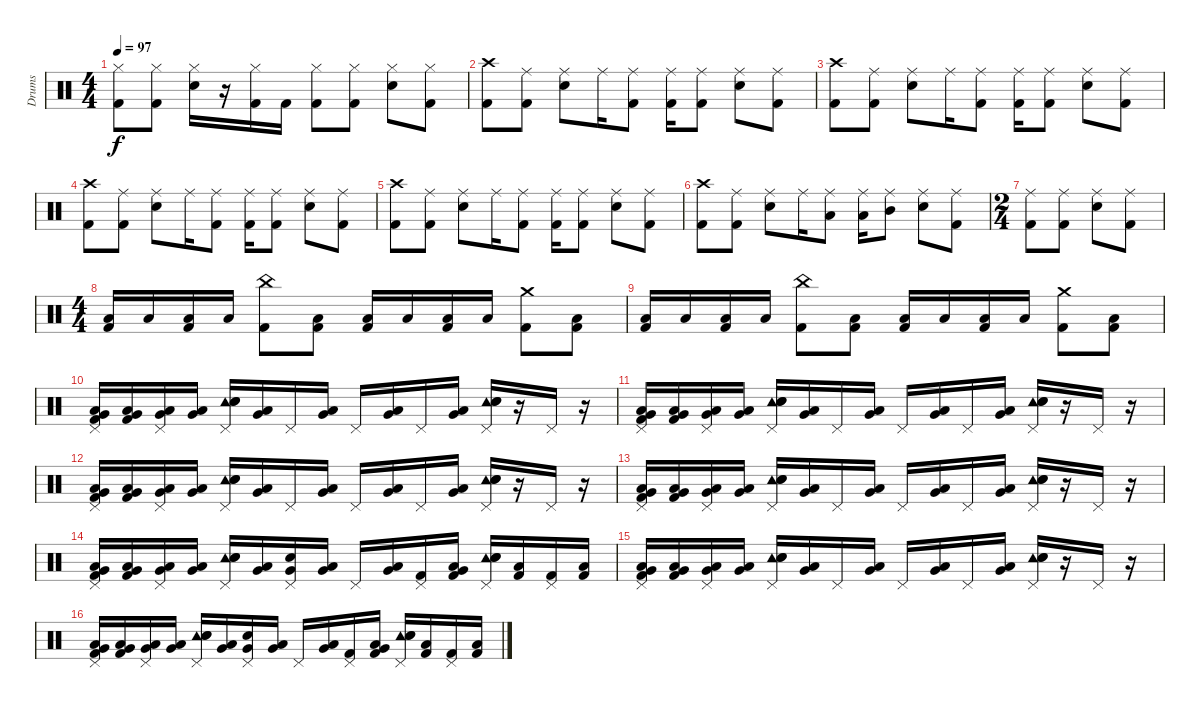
\track ("Drums" "Drums") {instrument percussion}
\staff {score}
\articulation defaults
\ts (4 4)
\tempo 97
\clef neutral
\ks c
("Hi-Hat (closed)" "Kick (hit) 2").8{dy f} ("Hi-Hat (closed)" "Kick (hit) 2").8 ("Hi-Hat (closed)" "Snare (hit) 2").16 r.16 ("Hi-Hat (closed)" "Kick (hit) 2").16 "Kick (hit) 2".16 ("Hi-Hat (closed)" "Kick (hit) 2").8 ("Hi-Hat (closed)" "Kick (hit) 2").8 ("Hi-Hat (closed)" "Snare (hit) 2").8 ("Hi-Hat (closed)" "Kick (hit) 2").8 |
("Crash high (hit)" "Kick (hit) 2").8 ("Ride (middle)" "Kick (hit) 2").8 ("Ride (middle)" "Snare (hit) 2").8 "Ride (middle)".16 ("Ride (middle)" "Kick (hit) 2").8 ("Ride (middle)" "Kick (hit) 2").16 ("Ride (middle)" "Kick (hit) 2").8 ("Ride (middle)" "Snare (hit) 2").8 ("Ride (middle)" "Kick (hit) 2").8 |
("Crash high (hit)" "Kick (hit) 2").8 ("Ride (middle)" "Kick (hit) 2").8 ("Ride (middle)" "Snare (hit) 2").8 "Ride (middle)".16 ("Ride (middle)" "Kick (hit) 2").8 ("Ride (middle)" "Kick (hit) 2").16 ("Ride (middle)" "Kick (hit) 2").8 ("Ride (middle)" "Snare (hit) 2").8 ("Ride (middle)" "Kick (hit) 2").8 |
("Crash high (hit)" "Kick (hit) 2").8 ("Ride (middle)" "Kick (hit) 2").8 ("Ride (middle)" "Snare (hit) 2").8 "Ride (middle)".16 ("Ride (middle)" "Kick (hit) 2").8 ("Ride (middle)" "Kick (hit) 2").16 ("Ride (middle)" "Kick (hit) 2").8 ("Ride (middle)" "Snare (hit) 2").8 ("Ride (middle)" "Kick (hit) 2").8 |
("Crash high (hit)" "Kick (hit) 2").8 ("Ride (middle)" "Kick (hit) 2").8 ("Ride (middle)" "Snare (hit) 2").8 "Ride (middle)".16 ("Ride (middle)" "Kick (hit) 2").8 ("Ride (middle)" "Kick (hit) 2").16 ("Ride (middle)" "Kick (hit) 2").8 ("Ride (middle)" "Snare (hit) 2").8 ("Ride (middle)" "Kick (hit) 2").8 |
("Crash high (hit)" "Kick (hit) 2").8 ("Ride (middle)" "Kick (hit) 2").8 ("Ride (middle)" "Snare (hit) 2").8 "Ride (middle)".16 ("Ride (middle)" "Low Tom (hit)").8 ("Ride (middle)" "Low Tom (hit)").16 ("Ride (middle)" "Mid Tom (hit)").8 ("Ride (middle)" "Snare (hit) 2").8 ("Ride (middle)" "Kick (hit) 2").8 |
\ts (2 4)
("Ride (middle)" "Kick (hit) 2").8 ("Ride (middle)" "Kick (hit) 2").8 ("Ride (middle)" "Snare (hit) 2").8 ("Ride (middle)" "Kick (hit) 2").8 |
\ts (4 4)
("Low Tom (hit)" "Kick (hit) 2").16 "Low Tom (hit)".16 ("Low Tom (hit)" "Kick (hit) 2").16 "Low Tom (hit)".16 ("China (hit)" "Kick (hit) 2").8 ("Low Tom (hit)" "Kick (hit) 2").8 ("Low Tom (hit)" "Kick (hit) 2").16 "Low Tom (hit)".16 ("Low Tom (hit)" "Kick (hit) 2").16 "Low Tom (hit)".16 ("Crash medium (hit)" "Kick (hit) 2").8 ("Low Tom (hit)" "Kick (hit) 2").8 |
("Low Tom (hit)" "Kick (hit) 2").16 "Low Tom (hit)".16 ("Low Tom (hit)" "Kick (hit) 2").16 "Low Tom (hit)".16 ("China (hit)" "Kick (hit) 2").8 ("Low Tom (hit)" "Kick (hit) 2").8 ("Low Tom (hit)" "Kick (hit) 2").16 "Low Tom (hit)".16 ("Low Tom (hit)" "Kick (hit) 2").16 "Low Tom (hit)".16 ("Crash medium (hit)" "Kick (hit) 2").8 ("Low Tom (hit)" "Kick (hit) 2").8 |
("Pedal Hi-Hat (hit)" "Low Tom (hit)" "Very Low Tom (hit)" "Kick (hit) 2").16 ("Low Tom (hit)" "Very Low Tom (hit)" "Kick (hit) 2").16 ("Pedal Hi-Hat (hit)" "Low Tom (hit)" "Very Low Tom (hit)").16 ("Low Tom (hit)" "Very Low Tom (hit)").16 ("Pedal Hi-Hat (hit)" "Tambourine (hit)" "Snare (hit) 2" "Electric Snare (hit)").16 ("Low Tom (hit)" "Very Low Tom (hit)").16 "Pedal Hi-Hat (hit)".16 ("Low Tom (hit)" "Very Low Tom (hit)").16 "Pedal Hi-Hat (hit)".16 ("Low Tom (hit)" "Very Low Tom (hit)").16 "Pedal Hi-Hat (hit)".16 ("Low Tom (hit)" "Very Low Tom (hit)").16 ("Pedal Hi-Hat (hit)" "Tambourine (hit)" "Snare (hit) 2" "Electric Snare (hit)").16 r.16 "Pedal Hi-Hat (hit)".16 r.16 |
("Pedal Hi-Hat (hit)" "Low Tom (hit)" "Very Low Tom (hit)" "Kick (hit) 2").16 ("Low Tom (hit)" "Very Low Tom (hit)" "Kick (hit) 2").16 ("Pedal Hi-Hat (hit)" "Low Tom (hit)" "Very Low Tom (hit)").16 ("Low Tom (hit)" "Very Low Tom (hit)").16 ("Pedal Hi-Hat (hit)" "Tambourine (hit)" "Snare (hit) 2" "Electric Snare (hit)").16 ("Low Tom (hit)" "Very Low Tom (hit)").16 "Pedal Hi-Hat (hit)".16 ("Low Tom (hit)" "Very Low Tom (hit)").16 "Pedal Hi-Hat (hit)".16 ("Low Tom (hit)" "Very Low Tom (hit)").16 "Pedal Hi-Hat (hit)".16 ("Low Tom (hit)" "Very Low Tom (hit)").16 ("Pedal Hi-Hat (hit)" "Tambourine (hit)" "Snare (hit) 2" "Electric Snare (hit)").16 r.16 "Pedal Hi-Hat (hit)".16 r.16 |
("Pedal Hi-Hat (hit)" "Low Tom (hit)" "Very Low Tom (hit)" "Kick (hit) 2").16 ("Low Tom (hit)" "Very Low Tom (hit)" "Kick (hit) 2").16 ("Pedal Hi-Hat (hit)" "Low Tom (hit)" "Very Low Tom (hit)").16 ("Low Tom (hit)" "Very Low Tom (hit)").16 ("Pedal Hi-Hat (hit)" "Tambourine (hit)" "Snare (hit) 2" "Electric Snare (hit)").16 ("Low Tom (hit)" "Very Low Tom (hit)").16 "Pedal Hi-Hat (hit)".16 ("Low Tom (hit)" "Very Low Tom (hit)").16 "Pedal Hi-Hat (hit)".16 ("Low Tom (hit)" "Very Low Tom (hit)").16 "Pedal Hi-Hat (hit)".16 ("Low Tom (hit)" "Very Low Tom (hit)").16 ("Pedal Hi-Hat (hit)" "Tambourine (hit)" "Snare (hit) 2" "Electric Snare (hit)").16 r.16 "Pedal Hi-Hat (hit)".16 r.16 |
("Pedal Hi-Hat (hit)" "Low Tom (hit)" "Very Low Tom (hit)" "Kick (hit) 2").16 ("Low Tom (hit)" "Very Low Tom (hit)" "Kick (hit) 2").16 ("Pedal Hi-Hat (hit)" "Low Tom (hit)" "Very Low Tom (hit)").16 ("Low Tom (hit)" "Very Low Tom (hit)").16 ("Pedal Hi-Hat (hit)" "Tambourine (hit)" "Snare (hit) 2" "Electric Snare (hit)").16 ("Low Tom (hit)" "Very Low Tom (hit)").16 "Pedal Hi-Hat (hit)".16 ("Low Tom (hit)" "Very Low Tom (hit)").16 "Pedal Hi-Hat (hit)".16 ("Low Tom (hit)" "Very Low Tom (hit)").16 "Pedal Hi-Hat (hit)".16 ("Low Tom (hit)" "Very Low Tom (hit)").16 ("Pedal Hi-Hat (hit)" "Tambourine (hit)" "Snare (hit) 2" "Electric Snare (hit)").16 r.16 "Pedal Hi-Hat (hit)".16 r.16 |
("Pedal Hi-Hat (hit)" "Low Tom (hit)" "Very Low Tom (hit)" "Kick (hit) 2").16 ("Low Tom (hit)" "Very Low Tom (hit)" "Kick (hit) 2").16 ("Pedal Hi-Hat (hit)" "Low Tom (hit)" "Very Low Tom (hit)").16 ("Low Tom (hit)" "Very Low Tom (hit)").16 ("Pedal Hi-Hat (hit)" "Tambourine (hit)" "Snare (hit) 2" "Electric Snare (hit)").16 ("Low Tom (hit)" "Very Low Tom (hit)").16 ("Pedal Hi-Hat (hit)" "Snare (hit)" "Very Low Tom (hit)").16 ("Low Tom (hit)" "Very Low Tom (hit)").16 "Pedal Hi-Hat (hit)".16 ("Low Tom (hit)" "Very Low Tom (hit)").16 ("Pedal Hi-Hat (hit)" "Kick (hit) 2").16 ("Low Tom (hit)" "Very Low Tom (hit)" "Kick (hit) 2").16 ("Pedal Hi-Hat (hit)" "Tambourine (hit)" "Snare (hit) 2" "Electric Snare (hit)").16 ("Low Tom (hit)" "Kick (hit) 2").16 ("Pedal Hi-Hat (hit)" "Kick (hit) 2").16 ("Low Tom (hit)" "Kick (hit) 2").16 |
("Pedal Hi-Hat (hit)" "Low Tom (hit)" "Very Low Tom (hit)" "Kick (hit) 2").16 ("Low Tom (hit)" "Very Low Tom (hit)" "Kick (hit) 2").16 ("Pedal Hi-Hat (hit)" "Low Tom (hit)" "Very Low Tom (hit)").16 ("Low Tom (hit)" "Very Low Tom (hit)").16 ("Pedal Hi-Hat (hit)" "Tambourine (hit)" "Snare (hit) 2" "Electric Snare (hit)").16 ("Low Tom (hit)" "Very Low Tom (hit)").16 "Pedal Hi-Hat (hit)".16 ("Low Tom (hit)" "Very Low Tom (hit)").16 "Pedal Hi-Hat (hit)".16 ("Low Tom (hit)" "Very Low Tom (hit)").16 "Pedal Hi-Hat (hit)".16 ("Low Tom (hit)" "Very Low Tom (hit)").16 ("Pedal Hi-Hat (hit)" "Tambourine (hit)" "Snare (hit) 2" "Electric Snare (hit)").16 r.16 "Pedal Hi-Hat (hit)".16 r.16 |
("Pedal Hi-Hat (hit)" "Low Tom (hit)" "Very Low Tom (hit)" "Kick (hit) 2").16 ("Low Tom (hit)" "Very Low Tom (hit)" "Kick (hit) 2").16 ("Pedal Hi-Hat (hit)" "Low Tom (hit)" "Very Low Tom (hit)").16 ("Low Tom (hit)" "Very Low Tom (hit)").16 ("Pedal Hi-Hat (hit)" "Tambourine (hit)" "Snare (hit) 2" "Electric Snare (hit)").16 ("Low Tom (hit)" "Very Low Tom (hit)").16 ("Pedal Hi-Hat (hit)" "Snare (hit)" "Very Low Tom (hit)").16 ("Low Tom (hit)" "Very Low Tom (hit)").16 "Pedal Hi-Hat (hit)".16 ("Low Tom (hit)" "Very Low Tom (hit)").16 ("Pedal Hi-Hat (hit)" "Kick (hit) 2").16 ("Low Tom (hit)" "Very Low Tom (hit)" "Kick (hit) 2").16 ("Pedal Hi-Hat (hit)" "Tambourine (hit)" "Snare (hit) 2" "Electric Snare (hit)").16 ("Low Tom (hit)" "Kick (hit) 2").16 ("Pedal Hi-Hat (hit)" "Kick (hit) 2").16 ("Low Tom (hit)" "Kick (hit) 2").16
